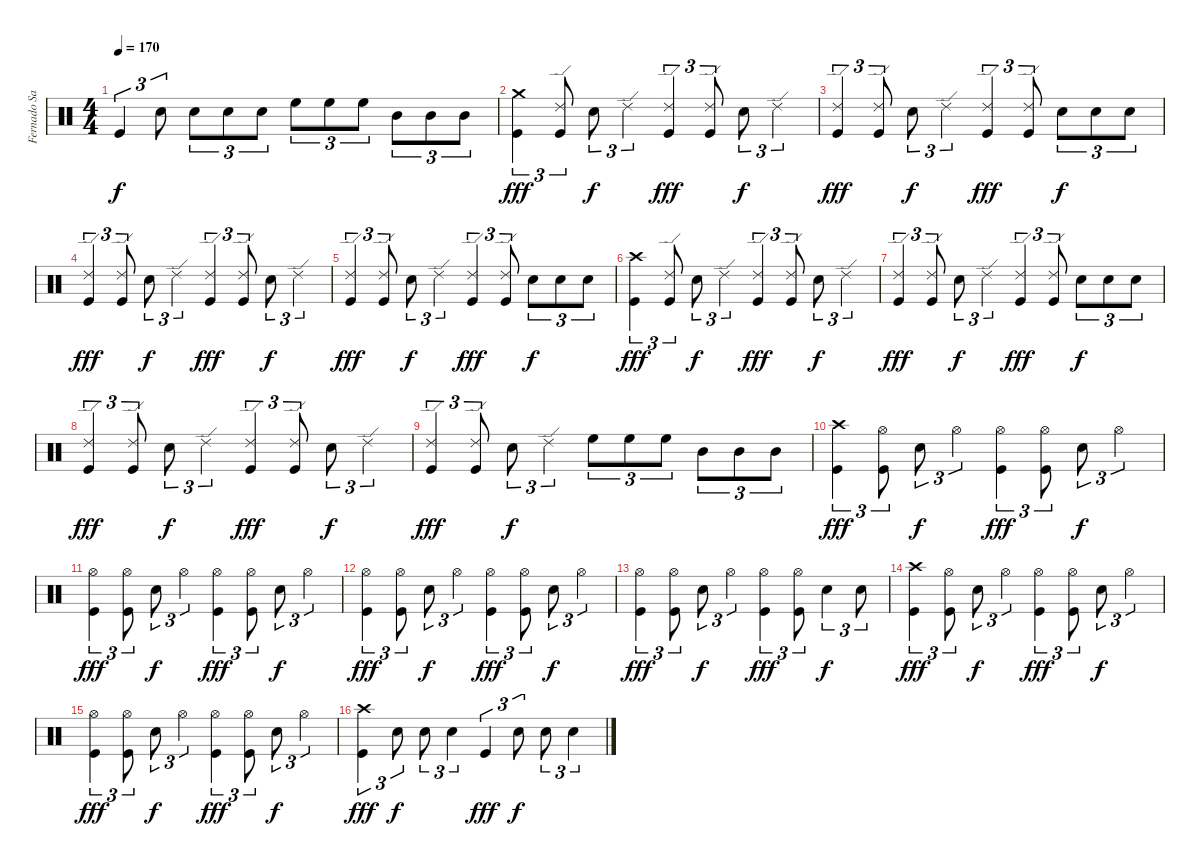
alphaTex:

\track ("Fernado Sanchez" "Fernado Sa") {instrument percussion}
\staff {score}
\articulation defaults
\ts (4 4)
\tempo 170
\clef neutral
\ks c "Kick (hit)".4{tu (3 2) dy f} "Electric Snare (hit)".8{tu (3 2)} "Electric Snare (hit)".8{tu (3 2)} "Electric Snare (hit)".8{tu (3 2)} "Electric Snare (hit)".8{tu (3 2)} "High Floor Tom (hit)".8{tu (3 2)} "High Floor Tom (hit)".8{tu (3 2)} "High Floor Tom (hit)".8{tu (3 2)} "Mid Tom (hit)".8{tu (3 2)} "Mid Tom (hit)".8{tu (3 2)} "Mid Tom (hit)".8{tu (3 2)}
|
("Crash medium (hit)" "Kick (hit)").4{tu (3 2) dy fff} ("Ride (edge) 2" "Kick (hit)").8{tu (3 2)} "Electric Snare (hit)".8{tu (3 2) dy f} "Ride (edge) 2".4{tu (3 2)} ("Ride (edge) 2" "Kick (hit)").4{tu (3 2) dy fff} ("Ride (edge) 2" "Kick (hit)").8{tu (3 2)} "Electric Snare (hit)".8{tu (3 2) dy f} "Ride (edge) 2".4{tu (3 2)} |
("Ride (edge) 2" "Kick (hit)").4{tu (3 2) dy fff} ("Ride (edge) 2" "Kick (hit)").8{tu (3 2)} "Electric Snare (hit)".8{tu (3 2) dy f} "Ride (edge) 2".4{tu (3 2)} ("Ride (edge) 2" "Kick (hit)").4{tu (3 2) dy fff} ("Ride (edge) 2" "Kick (hit)").8{tu (3 2)} "Electric Snare (hit)".8{tu (3 2) dy f} "Electric Snare (hit)".8{tu (3 2)} "Electric Snare (hit)".8{tu (3 2)} |
("Ride (edge) 2" "Kick (hit)").4{tu (3 2) dy fff} ("Ride (edge) 2" "Kick (hit)").8{tu (3 2)} "Electric Snare (hit)".8{tu (3 2) dy f} "Ride (edge) 2".4{tu (3 2)} ("Ride (edge) 2" "Kick (hit)").4{tu (3 2) dy fff} ("Ride (edge) 2" "Kick (hit)").8{tu (3 2)} "Electric Snare (hit)".8{tu (3 2) dy f} "Ride (edge) 2".4{tu (3 2)} |
("Ride (edge) 2" "Kick (hit)").4{tu (3 2) dy fff} ("Ride (edge) 2" "Kick (hit)").8{tu (3 2)} "Electric Snare (hit)".8{tu (3 2) dy f} "Ride (edge) 2".4{tu (3 2)} ("Ride (edge) 2" "Kick (hit)").4{tu (3 2) dy fff} ("Ride (edge) 2" "Kick (hit)").8{tu (3 2)} "Electric Snare (hit)".8{tu (3 2) dy f} "Electric Snare (hit)".8{tu (3 2)} "Electric Snare (hit)".8{tu (3 2)} |
("Crash high (hit)" "Kick (hit)").4{tu (3 2) dy fff} ("Ride (edge) 2" "Kick (hit)").8{tu (3 2)} "Electric Snare (hit)".8{tu (3 2) dy f} "Ride (edge) 2".4{tu (3 2)} ("Ride (edge) 2" "Kick (hit)").4{tu (3 2) dy fff} ("Ride (edge) 2" "Kick (hit)").8{tu (3 2)} "Electric Snare (hit)".8{tu (3 2) dy f} "Ride (edge) 2".4{tu (3 2)} |
("Ride (edge) 2" "Kick (hit)").4{tu (3 2) dy fff} ("Ride (edge) 2" "Kick (hit)").8{tu (3 2)} "Electric Snare (hit)".8{tu (3 2) dy f} "Ride (edge) 2".4{tu (3 2)} ("Ride (edge) 2" "Kick (hit)").4{tu (3 2) dy fff} ("Ride (edge) 2" "Kick (hit)").8{tu (3 2)} "Electric Snare (hit)".8{tu (3 2) dy f} "Electric Snare (hit)".8{tu (3 2)} "Electric Snare (hit)".8{tu (3 2)} |
("Ride (edge) 2" "Kick (hit)").4{tu (3 2) dy fff} ("Ride (edge) 2" "Kick (hit)").8{tu (3 2)} "Electric Snare (hit)".8{tu (3 2) dy f} "Ride (edge) 2".4{tu (3 2)} ("Ride (edge) 2" "Kick (hit)").4{tu (3 2) dy fff} ("Ride (edge) 2" "Kick (hit)").8{tu (3 2)} "Electric Snare (hit)".8{tu (3 2) dy f} "Ride (edge) 2".4{tu (3 2)} |
("Ride (edge) 2" "Kick (hit)").4{tu (3 2) dy fff} ("Ride (edge) 2" "Kick (hit)").8{tu (3 2)} "Electric Snare (hit)".8{tu (3 2) dy f} "Ride (edge) 2".4{tu (3 2)} "High Floor Tom (hit)".8{tu (3 2)} "High Floor Tom (hit)".8{tu (3 2)} "High Floor Tom (hit)".8{tu (3 2)} "Mid Tom (hit)".8{tu (3 2)} "Mid Tom (hit)".8{tu (3 2)} "Mid Tom (hit)".8{tu (3 2)} |
("Crash high (hit)" "Kick (hit)").4{tu (3 2) dy fff} ("Hi-Hat (open)" "Kick (hit)").8{tu (3 2)} "Electric Snare (hit)".8{tu (3 2) dy f} "Hi-Hat (open)".4{tu (3 2)} ("Hi-Hat (open)" "Kick (hit)").4{tu (3 2) dy fff} ("Hi-Hat (open)" "Kick (hit)").8{tu (3 2)} "Electric Snare (hit)".8{tu (3 2) dy f} "Hi-Hat (open)".4{tu (3 2)} |
("Hi-Hat (open)" "Kick (hit)").4{tu (3 2) dy fff} ("Hi-Hat (open)" "Kick (hit)").8{tu (3 2)} "Electric Snare (hit)".8{tu (3 2) dy f} "Hi-Hat (open)".4{tu (3 2)} ("Hi-Hat (open)" "Kick (hit)").4{tu (3 2) dy fff} ("Hi-Hat (open)" "Kick (hit)").8{tu (3 2)} "Electric Snare (hit)".8{tu (3 2) dy f} "Hi-Hat (open)".4{tu (3 2)} |
("Hi-Hat (open)" "Kick (hit)").4{tu (3 2) dy fff} ("Hi-Hat (open)" "Kick (hit)").8{tu (3 2)} "Electric Snare (hit)".8{tu (3 2) dy f} "Hi-Hat (open)".4{tu (3 2)} ("Hi-Hat (open)" "Kick (hit)").4{tu (3 2) dy fff} ("Hi-Hat (open)" "Kick (hit)").8{tu (3 2)} "Electric Snare (hit)".8{tu (3 2) dy f} "Hi-Hat (open)".4{tu (3 2)} |
("Hi-Hat (open)" "Kick (hit)").4{tu (3 2) dy fff} ("Hi-Hat (open)" "Kick (hit)").8{tu (3 2)} "Electric Snare (hit)".8{tu (3 2) dy f} "Hi-Hat (open)".4{tu (3 2)} ("Hi-Hat (open)" "Kick (hit)").4{tu (3 2) dy fff} ("Hi-Hat (open)" "Kick (hit)").8{tu (3 2)} "Electric Snare (hit)".4{tu (3 2) dy f} "Electric Snare (hit)".8{tu (3 2)} |
("Crash high (hit)" "Kick (hit)").4{tu (3 2) dy fff} ("Hi-Hat (open)" "Kick (hit)").8{tu (3 2)} "Electric Snare (hit)".8{tu (3 2) dy f} "Hi-Hat (open)".4{tu (3 2)} ("Hi-Hat (open)" "Kick (hit)").4{tu (3 2) dy fff} ("Hi-Hat (open)" "Kick (hit)").8{tu (3 2)} "Electric Snare (hit)".8{tu (3 2) dy f} "Hi-Hat (open)".4{tu (3 2)} |
("Hi-Hat (open)" "Kick (hit)").4{tu (3 2) dy fff} ("Hi-Hat (open)" "Kick (hit)").8{tu (3 2)} "Electric Snare (hit)".8{tu (3 2) dy f} "Hi-Hat (open)".4{tu (3 2)} ("Hi-Hat (open)" "Kick (hit)").4{tu (3 2) dy fff} ("Hi-Hat (open)" "Kick (hit)").8{tu (3 2)} "Electric Snare (hit)".8{tu (3 2) dy f} "Hi-Hat (open)".4{tu (3 2)} |
("Crash high (hit)" "Kick (hit)").4{tu (3 2) dy fff} "Electric Snare (hit)".8{tu (3 2) dy f} "Electric Snare (hit)".8{tu (3 2)} "Electric Snare (hit)".4{tu (3 2)} "Kick (hit)".4{tu (3 2) dy fff} "Electric Snare (hit)".8{tu (3 2) dy f} "Electric Snare (hit)".8{tu (3 2)} "Electric Snare (hit)".4{tu (3 2)}
